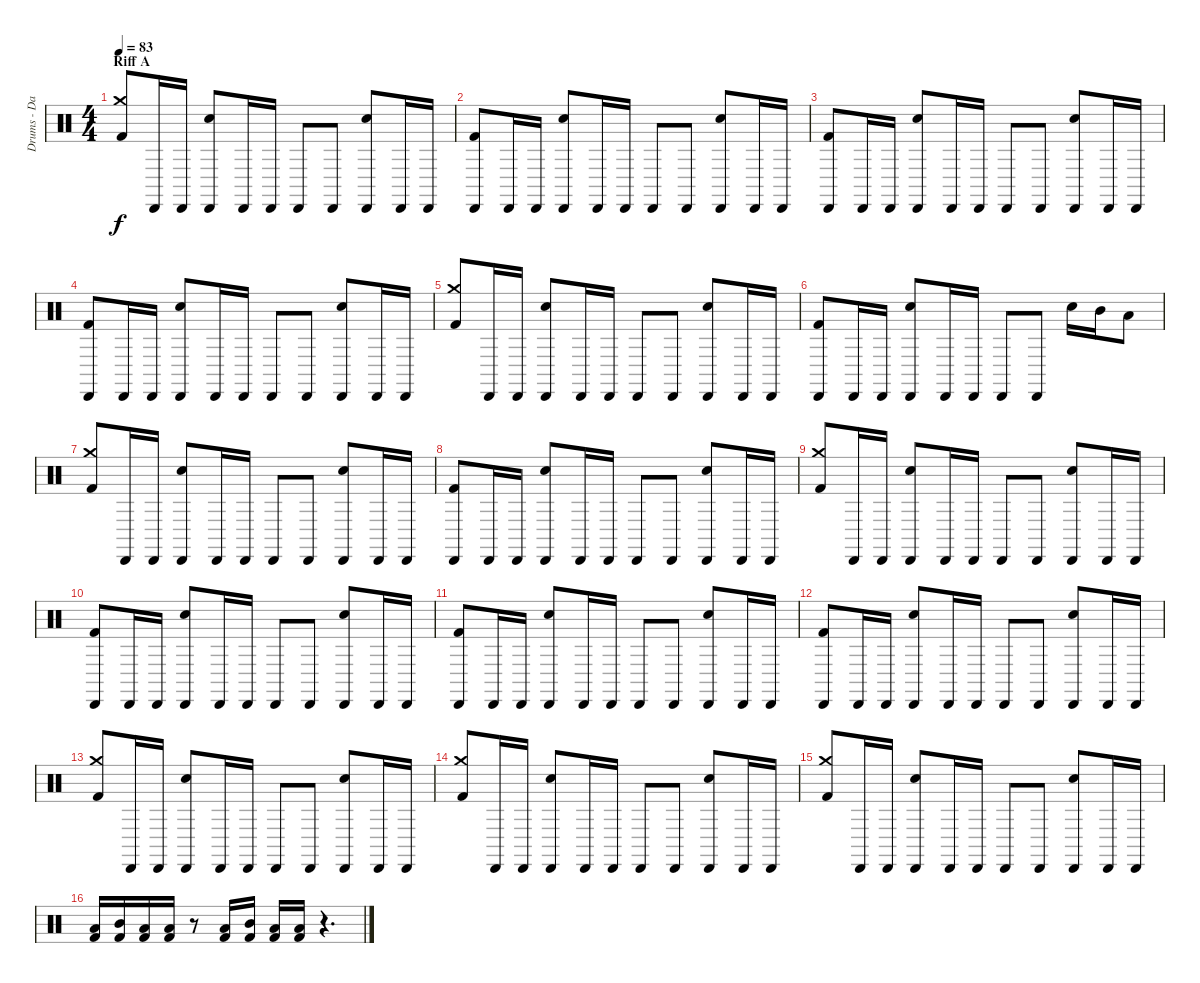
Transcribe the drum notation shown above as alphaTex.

\track ("Drums - Danny Carey" "Drums - Da") {instrument percussion}
\staff {score}
\articulation defaults
\ts (4 4)
\section ("" "Riff A")
\tempo 83
\clef neutral
\ks c
("Crash medium (hit)" "Kick (hit) 2").8{dy f} "Cabasa (hit)".16 "Cabasa (hit)".16 ("Cabasa (hit)" "Electric Snare (hit)").8 "Cabasa (hit)".16 "Cabasa (hit)".16 "Cabasa (hit)".8 "Cabasa (hit)".8 ("Cabasa (hit)" "Electric Snare (hit)").8 "Cabasa (hit)".16 "Cabasa (hit)".16 |
("Cabasa (hit)" "Kick (hit) 2").8 "Cabasa (hit)".16 "Cabasa (hit)".16 ("Cabasa (hit)" "Electric Snare (hit)").8 "Cabasa (hit)".16 "Cabasa (hit)".16 "Cabasa (hit)".8 "Cabasa (hit)".8 ("Cabasa (hit)" "Electric Snare (hit)").8 "Cabasa (hit)".16 "Cabasa (hit)".16 |
("Cabasa (hit)" "Kick (hit) 2").8 "Cabasa (hit)".16 "Cabasa (hit)".16 ("Cabasa (hit)" "Electric Snare (hit)").8 "Cabasa (hit)".16 "Cabasa (hit)".16 "Cabasa (hit)".8 "Cabasa (hit)".8 ("Cabasa (hit)" "Electric Snare (hit)").8 "Cabasa (hit)".16 "Cabasa (hit)".16 |
("Cabasa (hit)" "Kick (hit) 2").8 "Cabasa (hit)".16 "Cabasa (hit)".16 ("Cabasa (hit)" "Electric Snare (hit)").8 "Cabasa (hit)".16 "Cabasa (hit)".16 "Cabasa (hit)".8 "Cabasa (hit)".8 ("Cabasa (hit)" "Electric Snare (hit)").8 "Cabasa (hit)".16 "Cabasa (hit)".16 |
("Crash medium (hit)" "Kick (hit) 2").8 "Cabasa (hit)".16 "Cabasa (hit)".16 ("Cabasa (hit)" "Electric Snare (hit)").8 "Cabasa (hit)".16 "Cabasa (hit)".16 "Cabasa (hit)".8 "Cabasa (hit)".8 ("Cabasa (hit)" "Electric Snare (hit)").8 "Cabasa (hit)".16 "Cabasa (hit)".16 |
("Cabasa (hit)" "Kick (hit) 2").8 "Cabasa (hit)".16 "Cabasa (hit)".16 ("Cabasa (hit)" "Electric Snare (hit)").8 "Cabasa (hit)".16 "Cabasa (hit)".16 "Cabasa (hit)".8 "Cabasa (hit)".8 "Electric Snare (hit)".16 "Mid Tom (hit)".16 "Low Tom (hit)".8 |
("Crash medium (hit)" "Kick (hit) 2").8 "Cabasa (hit)".16 "Cabasa (hit)".16 ("Cabasa (hit)" "Electric Snare (hit)").8 "Cabasa (hit)".16 "Cabasa (hit)".16 "Cabasa (hit)".8 "Cabasa (hit)".8 ("Cabasa (hit)" "Electric Snare (hit)").8 "Cabasa (hit)".16 "Cabasa (hit)".16 |
("Cabasa (hit)" "Kick (hit) 2").8 "Cabasa (hit)".16 "Cabasa (hit)".16 ("Cabasa (hit)" "Electric Snare (hit)").8 "Cabasa (hit)".16 "Cabasa (hit)".16 "Cabasa (hit)".8 "Cabasa (hit)".8 ("Cabasa (hit)" "Electric Snare (hit)").8 "Cabasa (hit)".16 "Cabasa (hit)".16 |
("Crash medium (hit)" "Kick (hit) 2").8 "Cabasa (hit)".16 "Cabasa (hit)".16 ("Cabasa (hit)" "Electric Snare (hit)").8 "Cabasa (hit)".16 "Cabasa (hit)".16 "Cabasa (hit)".8 "Cabasa (hit)".8 ("Cabasa (hit)" "Electric Snare (hit)").8 "Cabasa (hit)".16 "Cabasa (hit)".16 |
("Cabasa (hit)" "Kick (hit) 2").8 "Cabasa (hit)".16 "Cabasa (hit)".16 ("Cabasa (hit)" "Electric Snare (hit)").8 "Cabasa (hit)".16 "Cabasa (hit)".16 "Cabasa (hit)".8 "Cabasa (hit)".8 ("Cabasa (hit)" "Electric Snare (hit)").8 "Cabasa (hit)".16 "Cabasa (hit)".16 |
("Cabasa (hit)" "Kick (hit) 2").8 "Cabasa (hit)".16 "Cabasa (hit)".16 ("Cabasa (hit)" "Electric Snare (hit)").8 "Cabasa (hit)".16 "Cabasa (hit)".16 "Cabasa (hit)".8 "Cabasa (hit)".8 ("Cabasa (hit)" "Electric Snare (hit)").8 "Cabasa (hit)".16 "Cabasa (hit)".16 |
("Cabasa (hit)" "Kick (hit) 2").8 "Cabasa (hit)".16 "Cabasa (hit)".16 ("Cabasa (hit)" "Electric Snare (hit)").8 "Cabasa (hit)".16 "Cabasa (hit)".16 "Cabasa (hit)".8 "Cabasa (hit)".8 ("Cabasa (hit)" "Electric Snare (hit)").8 "Cabasa (hit)".16 "Cabasa (hit)".16 |
("Crash medium (hit)" "Kick (hit) 2").8 "Cabasa (hit)".16 "Cabasa (hit)".16 ("Cabasa (hit)" "Electric Snare (hit)").8 "Cabasa (hit)".16 "Cabasa (hit)".16 "Cabasa (hit)".8 "Cabasa (hit)".8 ("Cabasa (hit)" "Electric Snare (hit)").8 "Cabasa (hit)".16 "Cabasa (hit)".16 |
("Crash medium (hit)" "Kick (hit) 2").8 "Cabasa (hit)".16 "Cabasa (hit)".16 ("Cabasa (hit)" "Electric Snare (hit)").8 "Cabasa (hit)".16 "Cabasa (hit)".16 "Cabasa (hit)".8 "Cabasa (hit)".8 ("Cabasa (hit)" "Electric Snare (hit)").8 "Cabasa (hit)".16 "Cabasa (hit)".16 |
("Crash medium (hit)" "Kick (hit) 2").8 "Cabasa (hit)".16 "Cabasa (hit)".16 ("Cabasa (hit)" "Electric Snare (hit)").8 "Cabasa (hit)".16 "Cabasa (hit)".16 "Cabasa (hit)".8 "Cabasa (hit)".8 ("Cabasa (hit)" "Electric Snare (hit)").8 "Cabasa (hit)".16 "Cabasa (hit)".16 |
("Low Tom (hit)" "Kick (hit) 2").16 ("Mid Tom (hit)" "Kick (hit) 2").16 ("Low Floor Tom (hit)" "Kick (hit) 2").16 ("Low Floor Tom (hit)" "Kick (hit) 2").16 r.8 ("Low Tom (hit)" "Kick (hit) 2").16 ("Mid Tom (hit)" "Kick (hit) 2").16 ("Low Floor Tom (hit)" "Kick (hit) 2").16 ("Low Floor Tom (hit)" "Kick (hit) 2").16 r.4{d}
